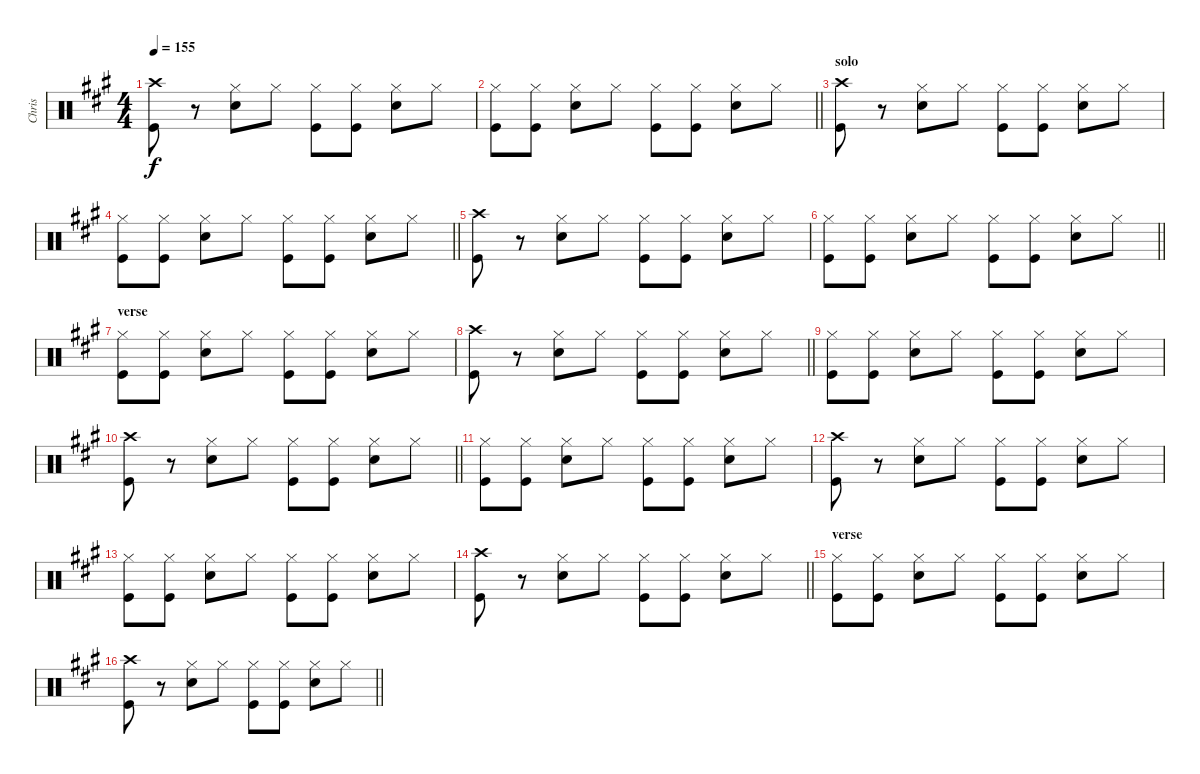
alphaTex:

\track ("Chris" "Chris") {instrument percussion}
\staff {score}
\articulation defaults
\ts (4 4)
\tempo 155
\clef neutral
\ks a
("Crash high (hit)" "Kick (hit)").8{dy f} r.8 ("Hi-Hat (closed)" "Snare (hit) 2").8 "Hi-Hat (closed)".8 ("Hi-Hat (closed)" "Kick (hit)").8 ("Hi-Hat (closed)" "Kick (hit)").8 ("Hi-Hat (closed)" "Snare (hit) 2").8 "Hi-Hat (closed)".8 |
\barLineRight lightlight
("Hi-Hat (closed)" "Kick (hit)").8 ("Hi-Hat (closed)" "Kick (hit)").8 ("Hi-Hat (closed)" "Snare (hit) 2").8 "Hi-Hat (closed)".8 ("Hi-Hat (closed)" "Kick (hit)").8 ("Hi-Hat (closed)" "Kick (hit)").8 ("Hi-Hat (closed)" "Snare (hit) 2").8 "Hi-Hat (closed)".8 |
\section ("" "solo")
("Crash high (hit)" "Kick (hit)").8 r.8 ("Hi-Hat (closed)" "Snare (hit) 2").8 "Hi-Hat (closed)".8 ("Hi-Hat (closed)" "Kick (hit)").8 ("Hi-Hat (closed)" "Kick (hit)").8 ("Hi-Hat (closed)" "Snare (hit) 2").8 "Hi-Hat (closed)".8 |
\barLineRight lightlight
("Hi-Hat (closed)" "Kick (hit)").8 ("Hi-Hat (closed)" "Kick (hit)").8 ("Hi-Hat (closed)" "Snare (hit) 2").8 "Hi-Hat (closed)".8 ("Hi-Hat (closed)" "Kick (hit)").8 ("Hi-Hat (closed)" "Kick (hit)").8 ("Hi-Hat (closed)" "Snare (hit) 2").8 "Hi-Hat (closed)".8 |
("Crash high (hit)" "Kick (hit)").8 r.8 ("Hi-Hat (closed)" "Snare (hit) 2").8 "Hi-Hat (closed)".8 ("Hi-Hat (closed)" "Kick (hit)").8 ("Hi-Hat (closed)" "Kick (hit)").8 ("Hi-Hat (closed)" "Snare (hit) 2").8 "Hi-Hat (closed)".8 |
\barLineRight lightlight
("Hi-Hat (closed)" "Kick (hit)").8 ("Hi-Hat (closed)" "Kick (hit)").8 ("Hi-Hat (closed)" "Snare (hit) 2").8 "Hi-Hat (closed)".8 ("Hi-Hat (closed)" "Kick (hit)").8 ("Hi-Hat (closed)" "Kick (hit)").8 ("Hi-Hat (closed)" "Snare (hit) 2").8 "Hi-Hat (closed)".8 |
\section ("" "verse")
("Hi-Hat (closed)" "Kick (hit)").8 ("Hi-Hat (closed)" "Kick (hit)").8 ("Hi-Hat (closed)" "Snare (hit) 2").8 "Hi-Hat (closed)".8 ("Hi-Hat (closed)" "Kick (hit)").8 ("Hi-Hat (closed)" "Kick (hit)").8 ("Hi-Hat (closed)" "Snare (hit) 2").8 "Hi-Hat (closed)".8 |
\barLineRight lightlight
("Crash high (hit)" "Kick (hit)").8 r.8 ("Hi-Hat (closed)" "Snare (hit) 2").8 "Hi-Hat (closed)".8 ("Hi-Hat (closed)" "Kick (hit)").8 ("Hi-Hat (closed)" "Kick (hit)").8 ("Hi-Hat (closed)" "Snare (hit) 2").8 "Hi-Hat (closed)".8 |
("Hi-Hat (closed)" "Kick (hit)").8 ("Hi-Hat (closed)" "Kick (hit)").8 ("Hi-Hat (closed)" "Snare (hit) 2").8 "Hi-Hat (closed)".8 ("Hi-Hat (closed)" "Kick (hit)").8 ("Hi-Hat (closed)" "Kick (hit)").8 ("Hi-Hat (closed)" "Snare (hit) 2").8 "Hi-Hat (closed)".8 |
\barLineRight lightlight
("Crash high (hit)" "Kick (hit)").8 r.8 ("Hi-Hat (closed)" "Snare (hit) 2").8 "Hi-Hat (closed)".8 ("Hi-Hat (closed)" "Kick (hit)").8 ("Hi-Hat (closed)" "Kick (hit)").8 ("Hi-Hat (closed)" "Snare (hit) 2").8 "Hi-Hat (closed)".8 |
("Hi-Hat (closed)" "Kick (hit)").8 ("Hi-Hat (closed)" "Kick (hit)").8 ("Hi-Hat (closed)" "Snare (hit) 2").8 "Hi-Hat (closed)".8 ("Hi-Hat (closed)" "Kick (hit)").8 ("Hi-Hat (closed)" "Kick (hit)").8 ("Hi-Hat (closed)" "Snare (hit) 2").8 "Hi-Hat (closed)".8 |
("Crash high (hit)" "Kick (hit)").8 r.8 ("Hi-Hat (closed)" "Snare (hit) 2").8 "Hi-Hat (closed)".8 ("Hi-Hat (closed)" "Kick (hit)").8 ("Hi-Hat (closed)" "Kick (hit)").8 ("Hi-Hat (closed)" "Snare (hit) 2").8 "Hi-Hat (closed)".8 |
("Hi-Hat (closed)" "Kick (hit)").8 ("Hi-Hat (closed)" "Kick (hit)").8 ("Hi-Hat (closed)" "Snare (hit) 2").8 "Hi-Hat (closed)".8 ("Hi-Hat (closed)" "Kick (hit)").8 ("Hi-Hat (closed)" "Kick (hit)").8 ("Hi-Hat (closed)" "Snare (hit) 2").8 "Hi-Hat (closed)".8 |
\barLineRight lightlight
("Crash high (hit)" "Kick (hit)").8 r.8 ("Hi-Hat (closed)" "Snare (hit) 2").8 "Hi-Hat (closed)".8 ("Hi-Hat (closed)" "Kick (hit)").8 ("Hi-Hat (closed)" "Kick (hit)").8 ("Hi-Hat (closed)" "Snare (hit) 2").8 "Hi-Hat (closed)".8 |
\section ("" "verse")
("Hi-Hat (closed)" "Kick (hit)").8 ("Hi-Hat (closed)" "Kick (hit)").8 ("Hi-Hat (closed)" "Snare (hit) 2").8 "Hi-Hat (closed)".8 ("Hi-Hat (closed)" "Kick (hit)").8 ("Hi-Hat (closed)" "Kick (hit)").8 ("Hi-Hat (closed)" "Snare (hit) 2").8 "Hi-Hat (closed)".8 |
\barLineRight lightlight
("Crash high (hit)" "Kick (hit)").8 r.8 ("Hi-Hat (closed)" "Snare (hit) 2").8 "Hi-Hat (closed)".8 ("Hi-Hat (closed)" "Kick (hit)").8 ("Hi-Hat (closed)" "Kick (hit)").8 ("Hi-Hat (closed)" "Snare (hit) 2").8 "Hi-Hat (closed)".8
